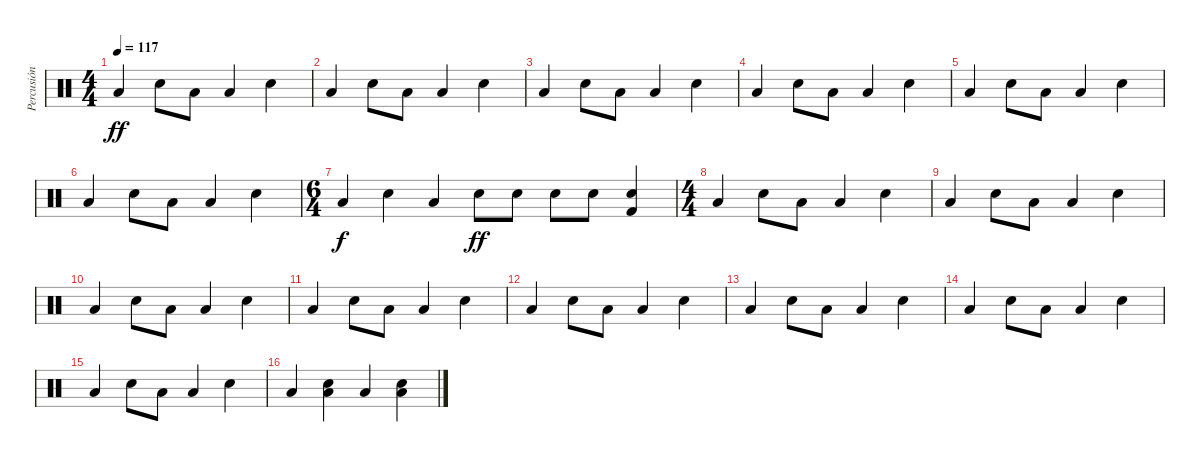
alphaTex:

\track ("Percusión" "Percusión") {instrument percussion}
\staff {score}
\articulation defaults
\ts (4 4)
\tempo 117
\clef neutral
\ks c "Low Floor Tom (hit)".4{dy ff} "Snare (hit) 2".8 "Low Floor Tom (hit)".8 "Low Floor Tom (hit)".4 "Snare (hit) 2".4
|
"Low Floor Tom (hit)".4 "Snare (hit) 2".8 "Low Floor Tom (hit)".8 "Low Floor Tom (hit)".4 "Snare (hit) 2".4 |
"Low Floor Tom (hit)".4 "Snare (hit) 2".8 "Low Floor Tom (hit)".8 "Low Floor Tom (hit)".4 "Snare (hit) 2".4 |
"Low Floor Tom (hit)".4 "Snare (hit) 2".8 "Low Floor Tom (hit)".8 "Low Floor Tom (hit)".4 "Snare (hit) 2".4 |
"Low Floor Tom (hit)".4 "Snare (hit) 2".8 "Low Floor Tom (hit)".8 "Low Floor Tom (hit)".4 "Snare (hit) 2".4 |
"Low Floor Tom (hit)".4 "Snare (hit) 2".8 "Low Floor Tom (hit)".8 "Low Floor Tom (hit)".4 "Snare (hit) 2".4 |
\ts (6 4)
"Low Floor Tom (hit)".4{dy f} "Snare (hit) 2".4 "Low Floor Tom (hit)".4 "Snare (hit) 2".8{dy ff} "Snare (hit) 2".8 "Snare (hit) 2".8 "Snare (hit) 2".8 ("Kick (hit) 2" "Electric Snare (hit)").4 |
\ts (4 4)
"Low Floor Tom (hit)".4 "Snare (hit) 2".8 "Low Floor Tom (hit)".8 "Low Floor Tom (hit)".4 "Snare (hit) 2".4 |
"Low Floor Tom (hit)".4 "Snare (hit) 2".8 "Low Floor Tom (hit)".8 "Low Floor Tom (hit)".4 "Snare (hit) 2".4 |
"Low Floor Tom (hit)".4 "Snare (hit) 2".8 "Low Floor Tom (hit)".8 "Low Floor Tom (hit)".4 "Snare (hit) 2".4 |
"Low Floor Tom (hit)".4 "Snare (hit) 2".8 "Low Floor Tom (hit)".8 "Low Floor Tom (hit)".4 "Snare (hit) 2".4 |
"Low Floor Tom (hit)".4 "Snare (hit) 2".8 "Low Floor Tom (hit)".8 "Low Floor Tom (hit)".4 "Snare (hit) 2".4 |
"Low Floor Tom (hit)".4 "Snare (hit) 2".8 "Low Floor Tom (hit)".8 "Low Floor Tom (hit)".4 "Snare (hit) 2".4 |
"Low Floor Tom (hit)".4 "Snare (hit) 2".8 "Low Floor Tom (hit)".8 "Low Floor Tom (hit)".4 "Snare (hit) 2".4 |
"Low Floor Tom (hit)".4 "Snare (hit) 2".8 "Low Floor Tom (hit)".8 "Low Floor Tom (hit)".4 "Snare (hit) 2".4 |
"Low Floor Tom (hit)".4 ("Snare (hit) 2" "Low Floor Tom (hit)").4 "Low Floor Tom (hit)".4 ("Snare (hit) 2" "Low Floor Tom (hit)").4
